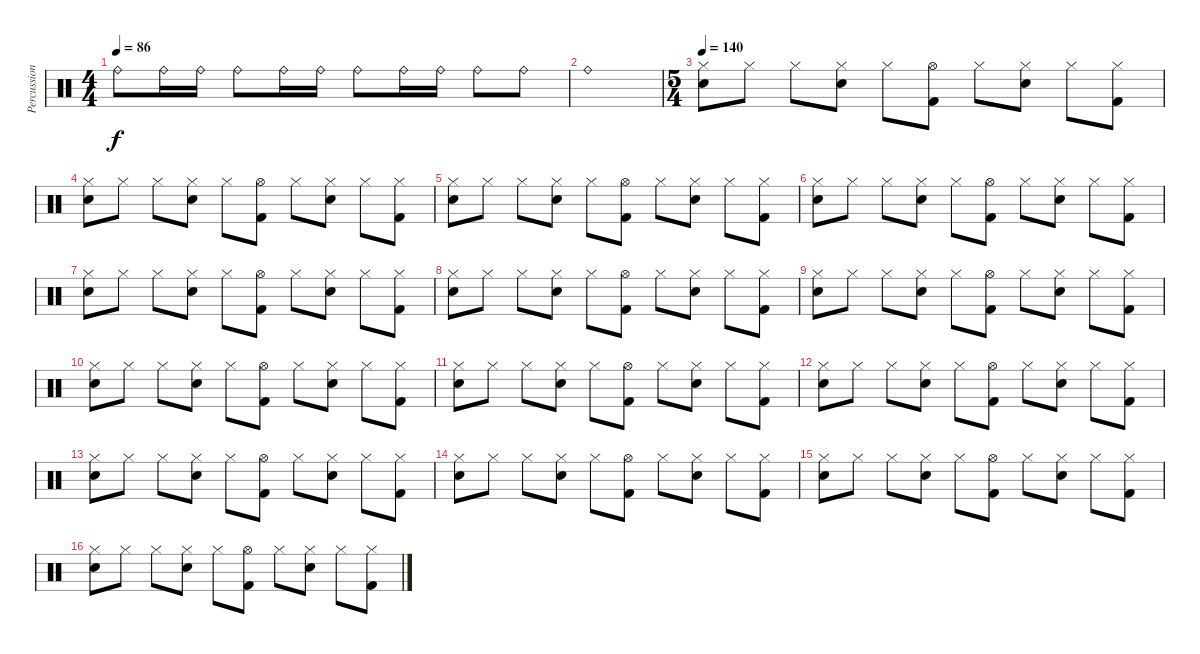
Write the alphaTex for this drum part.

\track ("Percussions" "Percussion") {instrument percussion}
\staff {score}
\articulation defaults
\ts (4 4)
\tempo 86
\clef neutral
\ks c "Ride (bell)".8{dy f} "Ride (bell)".16 "Ride (bell)".16 "Ride (bell)".8 "Ride (bell)".16 "Ride (bell)".16 "Ride (bell)".8 "Ride (bell)".16 "Ride (bell)".16 "Ride (bell)".8 "Ride (bell)".8
|
"Ride (bell)".1 |
\ts (5 4)
\tempo 140
("Hi-Hat (closed)" "Snare (hit) 2").8 "Hi-Hat (closed)".8 "Hi-Hat (closed)".8 ("Hi-Hat (closed)" "Snare (hit) 2").8 "Hi-Hat (closed)".8 ("Hi-Hat (open)" "Kick (hit) 2").8 "Hi-Hat (closed)".8 ("Hi-Hat (closed)" "Snare (hit) 2").8 "Hi-Hat (closed)".8 ("Hi-Hat (closed)" "Kick (hit) 2").8 |
("Hi-Hat (closed)" "Snare (hit) 2").8 "Hi-Hat (closed)".8 "Hi-Hat (closed)".8 ("Hi-Hat (closed)" "Snare (hit) 2").8 "Hi-Hat (closed)".8 ("Hi-Hat (open)" "Kick (hit) 2").8 "Hi-Hat (closed)".8 ("Hi-Hat (closed)" "Snare (hit) 2").8 "Hi-Hat (closed)".8 ("Hi-Hat (closed)" "Kick (hit) 2").8 |
("Hi-Hat (closed)" "Snare (hit) 2").8 "Hi-Hat (closed)".8 "Hi-Hat (closed)".8 ("Hi-Hat (closed)" "Snare (hit) 2").8 "Hi-Hat (closed)".8 ("Hi-Hat (open)" "Kick (hit) 2").8 "Hi-Hat (closed)".8 ("Hi-Hat (closed)" "Snare (hit) 2").8 "Hi-Hat (closed)".8 ("Hi-Hat (closed)" "Kick (hit) 2").8 |
("Hi-Hat (closed)" "Snare (hit) 2").8 "Hi-Hat (closed)".8 "Hi-Hat (closed)".8 ("Hi-Hat (closed)" "Snare (hit) 2").8 "Hi-Hat (closed)".8 ("Hi-Hat (open)" "Kick (hit) 2").8 "Hi-Hat (closed)".8 ("Hi-Hat (closed)" "Snare (hit) 2").8 "Hi-Hat (closed)".8 ("Hi-Hat (closed)" "Kick (hit) 2").8 |
("Hi-Hat (closed)" "Snare (hit) 2").8 "Hi-Hat (closed)".8 "Hi-Hat (closed)".8 ("Hi-Hat (closed)" "Snare (hit) 2").8 "Hi-Hat (closed)".8 ("Hi-Hat (open)" "Kick (hit) 2").8 "Hi-Hat (closed)".8 ("Hi-Hat (closed)" "Snare (hit) 2").8 "Hi-Hat (closed)".8 ("Hi-Hat (closed)" "Kick (hit) 2").8 |
("Hi-Hat (closed)" "Snare (hit) 2").8 "Hi-Hat (closed)".8 "Hi-Hat (closed)".8 ("Hi-Hat (closed)" "Snare (hit) 2").8 "Hi-Hat (closed)".8 ("Hi-Hat (open)" "Kick (hit) 2").8 "Hi-Hat (closed)".8 ("Hi-Hat (closed)" "Snare (hit) 2").8 "Hi-Hat (closed)".8 ("Hi-Hat (closed)" "Kick (hit) 2").8 |
("Hi-Hat (closed)" "Snare (hit) 2").8 "Hi-Hat (closed)".8 "Hi-Hat (closed)".8 ("Hi-Hat (closed)" "Snare (hit) 2").8 "Hi-Hat (closed)".8 ("Hi-Hat (open)" "Kick (hit) 2").8 "Hi-Hat (closed)".8 ("Hi-Hat (closed)" "Snare (hit) 2").8 "Hi-Hat (closed)".8 ("Hi-Hat (closed)" "Kick (hit) 2").8 |
("Hi-Hat (closed)" "Snare (hit) 2").8 "Hi-Hat (closed)".8 "Hi-Hat (closed)".8 ("Hi-Hat (closed)" "Snare (hit) 2").8 "Hi-Hat (closed)".8 ("Hi-Hat (open)" "Kick (hit) 2").8 "Hi-Hat (closed)".8 ("Hi-Hat (closed)" "Snare (hit) 2").8 "Hi-Hat (closed)".8 ("Hi-Hat (closed)" "Kick (hit) 2").8 |
("Hi-Hat (closed)" "Snare (hit) 2").8 "Hi-Hat (closed)".8 "Hi-Hat (closed)".8 ("Hi-Hat (closed)" "Snare (hit) 2").8 "Hi-Hat (closed)".8 ("Hi-Hat (open)" "Kick (hit) 2").8 "Hi-Hat (closed)".8 ("Hi-Hat (closed)" "Snare (hit) 2").8 "Hi-Hat (closed)".8 ("Hi-Hat (closed)" "Kick (hit) 2").8 |
("Hi-Hat (closed)" "Snare (hit) 2").8 "Hi-Hat (closed)".8 "Hi-Hat (closed)".8 ("Hi-Hat (closed)" "Snare (hit) 2").8 "Hi-Hat (closed)".8 ("Hi-Hat (open)" "Kick (hit) 2").8 "Hi-Hat (closed)".8 ("Hi-Hat (closed)" "Snare (hit) 2").8 "Hi-Hat (closed)".8 ("Hi-Hat (closed)" "Kick (hit) 2").8 |
("Hi-Hat (closed)" "Snare (hit) 2").8 "Hi-Hat (closed)".8 "Hi-Hat (closed)".8 ("Hi-Hat (closed)" "Snare (hit) 2").8 "Hi-Hat (closed)".8 ("Hi-Hat (open)" "Kick (hit) 2").8 "Hi-Hat (closed)".8 ("Hi-Hat (closed)" "Snare (hit) 2").8 "Hi-Hat (closed)".8 ("Hi-Hat (closed)" "Kick (hit) 2").8 |
("Hi-Hat (closed)" "Snare (hit) 2").8 "Hi-Hat (closed)".8 "Hi-Hat (closed)".8 ("Hi-Hat (closed)" "Snare (hit) 2").8 "Hi-Hat (closed)".8 ("Hi-Hat (open)" "Kick (hit) 2").8 "Hi-Hat (closed)".8 ("Hi-Hat (closed)" "Snare (hit) 2").8 "Hi-Hat (closed)".8 ("Hi-Hat (closed)" "Kick (hit) 2").8 |
("Hi-Hat (closed)" "Snare (hit) 2").8 "Hi-Hat (closed)".8 "Hi-Hat (closed)".8 ("Hi-Hat (closed)" "Snare (hit) 2").8 "Hi-Hat (closed)".8 ("Hi-Hat (open)" "Kick (hit) 2").8 "Hi-Hat (closed)".8 ("Hi-Hat (closed)" "Snare (hit) 2").8 "Hi-Hat (closed)".8 ("Hi-Hat (closed)" "Kick (hit) 2").8 |
("Hi-Hat (closed)" "Snare (hit) 2").8 "Hi-Hat (closed)".8 "Hi-Hat (closed)".8 ("Hi-Hat (closed)" "Snare (hit) 2").8 "Hi-Hat (closed)".8 ("Hi-Hat (open)" "Kick (hit) 2").8 "Hi-Hat (closed)".8 ("Hi-Hat (closed)" "Snare (hit) 2").8 "Hi-Hat (closed)".8 ("Hi-Hat (closed)" "Kick (hit) 2").8
